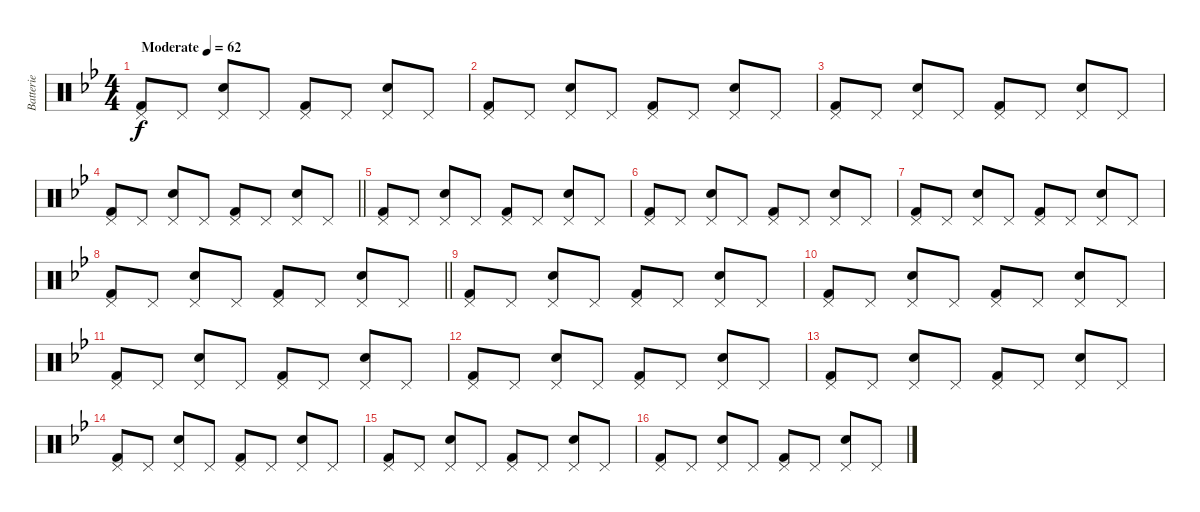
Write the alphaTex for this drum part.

\track ("Batterie" "Batterie") {instrument percussion}
\staff {score}
\articulation defaults
\ts (4 4)
\tempo (62 "Moderate")
\clef neutral
\ks bb
("Kick (hit) 2" "Pedal Hi-Hat (hit)").8{dy f} "Pedal Hi-Hat (hit)".8 ("Pedal Hi-Hat (hit)" "Snare (hit) 2").8 "Pedal Hi-Hat (hit)".8 ("Kick (hit) 2" "Pedal Hi-Hat (hit)").8 "Pedal Hi-Hat (hit)".8 ("Pedal Hi-Hat (hit)" "Snare (hit) 2").8 "Pedal Hi-Hat (hit)".8 |
("Kick (hit) 2" "Pedal Hi-Hat (hit)").8 "Pedal Hi-Hat (hit)".8 ("Pedal Hi-Hat (hit)" "Snare (hit) 2").8 "Pedal Hi-Hat (hit)".8 ("Kick (hit) 2" "Pedal Hi-Hat (hit)").8 "Pedal Hi-Hat (hit)".8 ("Pedal Hi-Hat (hit)" "Snare (hit) 2").8 "Pedal Hi-Hat (hit)".8 |
("Kick (hit) 2" "Pedal Hi-Hat (hit)").8 "Pedal Hi-Hat (hit)".8 ("Pedal Hi-Hat (hit)" "Snare (hit) 2").8 "Pedal Hi-Hat (hit)".8 ("Kick (hit) 2" "Pedal Hi-Hat (hit)").8 "Pedal Hi-Hat (hit)".8 ("Pedal Hi-Hat (hit)" "Snare (hit) 2").8 "Pedal Hi-Hat (hit)".8 |
\barLineRight lightlight
("Kick (hit) 2" "Pedal Hi-Hat (hit)").8 "Pedal Hi-Hat (hit)".8 ("Pedal Hi-Hat (hit)" "Snare (hit) 2").8 "Pedal Hi-Hat (hit)".8 ("Kick (hit) 2" "Pedal Hi-Hat (hit)").8 "Pedal Hi-Hat (hit)".8 ("Pedal Hi-Hat (hit)" "Snare (hit) 2").8 "Pedal Hi-Hat (hit)".8 |
("Kick (hit) 2" "Pedal Hi-Hat (hit)").8 "Pedal Hi-Hat (hit)".8 ("Pedal Hi-Hat (hit)" "Snare (hit) 2").8 "Pedal Hi-Hat (hit)".8 ("Kick (hit) 2" "Pedal Hi-Hat (hit)").8 "Pedal Hi-Hat (hit)".8 ("Pedal Hi-Hat (hit)" "Snare (hit) 2").8 "Pedal Hi-Hat (hit)".8 |
("Kick (hit) 2" "Pedal Hi-Hat (hit)").8 "Pedal Hi-Hat (hit)".8 ("Pedal Hi-Hat (hit)" "Snare (hit) 2").8 "Pedal Hi-Hat (hit)".8 ("Kick (hit) 2" "Pedal Hi-Hat (hit)").8 "Pedal Hi-Hat (hit)".8 ("Pedal Hi-Hat (hit)" "Snare (hit) 2").8 "Pedal Hi-Hat (hit)".8 |
("Kick (hit) 2" "Pedal Hi-Hat (hit)").8 "Pedal Hi-Hat (hit)".8 ("Pedal Hi-Hat (hit)" "Snare (hit) 2").8 "Pedal Hi-Hat (hit)".8 ("Kick (hit) 2" "Pedal Hi-Hat (hit)").8 "Pedal Hi-Hat (hit)".8 ("Pedal Hi-Hat (hit)" "Snare (hit) 2").8 "Pedal Hi-Hat (hit)".8 |
\barLineRight lightlight
("Kick (hit) 2" "Pedal Hi-Hat (hit)").8 "Pedal Hi-Hat (hit)".8 ("Pedal Hi-Hat (hit)" "Snare (hit) 2").8 "Pedal Hi-Hat (hit)".8 ("Kick (hit) 2" "Pedal Hi-Hat (hit)").8 "Pedal Hi-Hat (hit)".8 ("Pedal Hi-Hat (hit)" "Snare (hit) 2").8 "Pedal Hi-Hat (hit)".8 |
("Kick (hit) 2" "Pedal Hi-Hat (hit)").8 "Pedal Hi-Hat (hit)".8 ("Pedal Hi-Hat (hit)" "Snare (hit) 2").8 "Pedal Hi-Hat (hit)".8 ("Kick (hit) 2" "Pedal Hi-Hat (hit)").8 "Pedal Hi-Hat (hit)".8 ("Pedal Hi-Hat (hit)" "Snare (hit) 2").8 "Pedal Hi-Hat (hit)".8 |
("Kick (hit) 2" "Pedal Hi-Hat (hit)").8 "Pedal Hi-Hat (hit)".8 ("Pedal Hi-Hat (hit)" "Snare (hit) 2").8 "Pedal Hi-Hat (hit)".8 ("Kick (hit) 2" "Pedal Hi-Hat (hit)").8 "Pedal Hi-Hat (hit)".8 ("Pedal Hi-Hat (hit)" "Snare (hit) 2").8 "Pedal Hi-Hat (hit)".8 |
("Kick (hit) 2" "Pedal Hi-Hat (hit)").8 "Pedal Hi-Hat (hit)".8 ("Pedal Hi-Hat (hit)" "Snare (hit) 2").8 "Pedal Hi-Hat (hit)".8 ("Kick (hit) 2" "Pedal Hi-Hat (hit)").8 "Pedal Hi-Hat (hit)".8 ("Pedal Hi-Hat (hit)" "Snare (hit) 2").8 "Pedal Hi-Hat (hit)".8 |
("Kick (hit) 2" "Pedal Hi-Hat (hit)").8 "Pedal Hi-Hat (hit)".8 ("Pedal Hi-Hat (hit)" "Snare (hit) 2").8 "Pedal Hi-Hat (hit)".8 ("Kick (hit) 2" "Pedal Hi-Hat (hit)").8 "Pedal Hi-Hat (hit)".8 ("Pedal Hi-Hat (hit)" "Snare (hit) 2").8 "Pedal Hi-Hat (hit)".8 |
("Kick (hit) 2" "Pedal Hi-Hat (hit)").8 "Pedal Hi-Hat (hit)".8 ("Pedal Hi-Hat (hit)" "Snare (hit) 2").8 "Pedal Hi-Hat (hit)".8 ("Kick (hit) 2" "Pedal Hi-Hat (hit)").8 "Pedal Hi-Hat (hit)".8 ("Pedal Hi-Hat (hit)" "Snare (hit) 2").8 "Pedal Hi-Hat (hit)".8 |
("Kick (hit) 2" "Pedal Hi-Hat (hit)").8 "Pedal Hi-Hat (hit)".8 ("Pedal Hi-Hat (hit)" "Snare (hit) 2").8 "Pedal Hi-Hat (hit)".8 ("Kick (hit) 2" "Pedal Hi-Hat (hit)").8 "Pedal Hi-Hat (hit)".8 ("Pedal Hi-Hat (hit)" "Snare (hit) 2").8 "Pedal Hi-Hat (hit)".8 |
("Kick (hit) 2" "Pedal Hi-Hat (hit)").8 "Pedal Hi-Hat (hit)".8 ("Pedal Hi-Hat (hit)" "Snare (hit) 2").8 "Pedal Hi-Hat (hit)".8 ("Kick (hit) 2" "Pedal Hi-Hat (hit)").8 "Pedal Hi-Hat (hit)".8 ("Pedal Hi-Hat (hit)" "Snare (hit) 2").8 "Pedal Hi-Hat (hit)".8 |
("Kick (hit) 2" "Pedal Hi-Hat (hit)").8 "Pedal Hi-Hat (hit)".8 ("Pedal Hi-Hat (hit)" "Snare (hit) 2").8 "Pedal Hi-Hat (hit)".8 ("Kick (hit) 2" "Pedal Hi-Hat (hit)").8 "Pedal Hi-Hat (hit)".8 ("Pedal Hi-Hat (hit)" "Snare (hit) 2").8 "Pedal Hi-Hat (hit)".8
